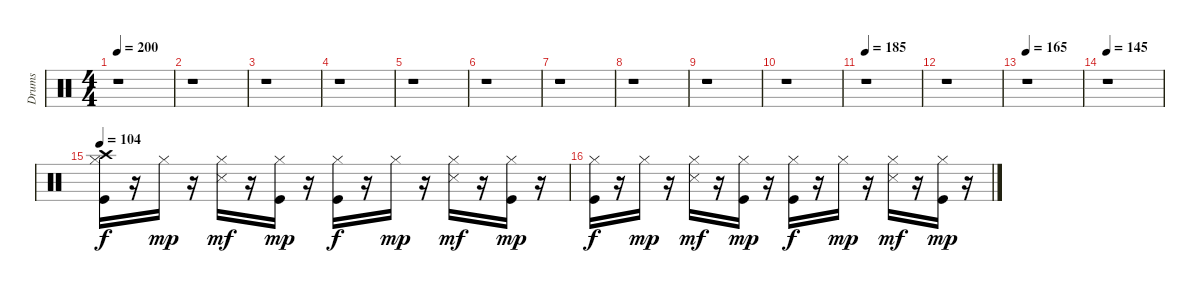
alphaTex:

\track ("Drums" "Drums") {instrument percussion}
\staff {score}
\articulation defaults
\ts (4 4)
\tempo 200
\clef neutral
\ks c
r.1{dy f} |
r.1 |
r.1 |
r.1 |
r.1 |
r.1 |
r.1 |
r.1 |
r.1 |
r.1 |
\tempo 185
r.1 |
r.1 |
\tempo 165
r.1 |
\tempo 145
r.1 |
\tempo 104
("Kick (hit)" "Hi-Hat (closed)" "Crash high (hit)").16 r.16 "Hi-Hat (closed)".16{dy mp} r.16 ("Hi-Hat (closed)" "Snare (side stick) 3").16{dy mf} r.16 ("Kick (hit)" "Hi-Hat (closed)").16{dy mp} r.16 ("Kick (hit)" "Hi-Hat (closed)").16{dy f} r.16 "Hi-Hat (closed)".16{dy mp} r.16 ("Hi-Hat (closed)" "Snare (side stick) 3").16{dy mf} r.16 ("Kick (hit)" "Hi-Hat (closed)").16{dy mp} r.16 |
("Kick (hit)" "Hi-Hat (closed)").16{dy f} r.16 "Hi-Hat (closed)".16{dy mp} r.16 ("Hi-Hat (closed)" "Snare (side stick) 3").16{dy mf} r.16 ("Kick (hit)" "Hi-Hat (closed)").16{dy mp} r.16 ("Kick (hit)" "Hi-Hat (closed)").16{dy f} r.16 "Hi-Hat (closed)".16{dy mp} r.16 ("Hi-Hat (closed)" "Snare (side stick) 3").16{dy mf} r.16 ("Kick (hit)" "Hi-Hat (closed)").16{dy mp} r.16
